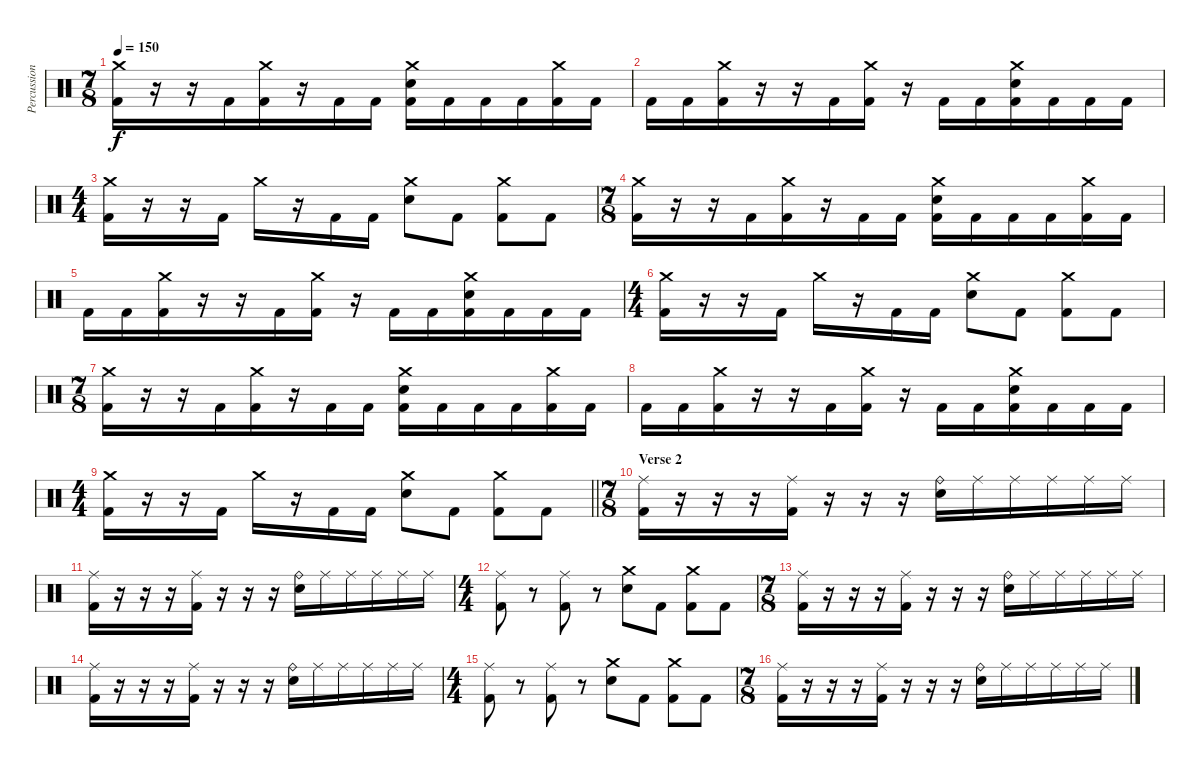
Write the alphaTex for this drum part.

\track ("Percussion" "Percussion") {instrument percussion}
\staff {score}
\articulation defaults
\ts (7 8)
\tempo 150
\clef neutral
\ks c
("Crash medium (hit)" "Kick (hit) 2").16{dy f} r.16 r.16 "Kick (hit) 2".16 ("Crash medium (hit)" "Kick (hit) 2").16 r.16 "Kick (hit) 2".16 "Kick (hit) 2".16 ("Crash medium (hit)" "Electric Snare (hit)" "Kick (hit) 2").16 "Kick (hit) 2".16 "Kick (hit) 2".16 "Kick (hit) 2".16 ("Crash medium (hit)" "Kick (hit) 2").16 "Kick (hit) 2".16 |
"Kick (hit) 2".16 "Kick (hit) 2".16 ("Crash medium (hit)" "Kick (hit) 2").16 r.16 r.16 "Kick (hit) 2".16 ("Crash medium (hit)" "Kick (hit) 2").16 r.16 "Kick (hit) 2".16 "Kick (hit) 2".16 ("Crash medium (hit)" "Electric Snare (hit)" "Kick (hit) 2").16 "Kick (hit) 2".16 "Kick (hit) 2".16 "Kick (hit) 2".16 |
\ts (4 4)
("Crash medium (hit)" "Kick (hit) 2").16 r.16 r.16 "Kick (hit) 2".16 "Crash medium (hit)".16 r.16 "Kick (hit) 2".16 "Kick (hit) 2".16 ("Crash medium (hit)" "Electric Snare (hit)").8 "Kick (hit) 2".8 ("Crash medium (hit)" "Kick (hit) 2").8 "Kick (hit) 2".8 |
\ts (7 8)
("Crash medium (hit)" "Kick (hit) 2").16 r.16 r.16 "Kick (hit) 2".16 ("Crash medium (hit)" "Kick (hit) 2").16 r.16 "Kick (hit) 2".16 "Kick (hit) 2".16 ("Crash medium (hit)" "Electric Snare (hit)" "Kick (hit) 2").16 "Kick (hit) 2".16 "Kick (hit) 2".16 "Kick (hit) 2".16 ("Crash medium (hit)" "Kick (hit) 2").16 "Kick (hit) 2".16 |
"Kick (hit) 2".16 "Kick (hit) 2".16 ("Crash medium (hit)" "Kick (hit) 2").16 r.16 r.16 "Kick (hit) 2".16 ("Crash medium (hit)" "Kick (hit) 2").16 r.16 "Kick (hit) 2".16 "Kick (hit) 2".16 ("Crash medium (hit)" "Electric Snare (hit)" "Kick (hit) 2").16 "Kick (hit) 2".16 "Kick (hit) 2".16 "Kick (hit) 2".16 |
\ts (4 4)
("Crash medium (hit)" "Kick (hit) 2").16 r.16 r.16 "Kick (hit) 2".16 "Crash medium (hit)".16 r.16 "Kick (hit) 2".16 "Kick (hit) 2".16 ("Crash medium (hit)" "Electric Snare (hit)").8 "Kick (hit) 2".8 ("Crash medium (hit)" "Kick (hit) 2").8 "Kick (hit) 2".8 |
\ts (7 8)
("Crash medium (hit)" "Kick (hit) 2").16 r.16 r.16 "Kick (hit) 2".16 ("Crash medium (hit)" "Kick (hit) 2").16 r.16 "Kick (hit) 2".16 "Kick (hit) 2".16 ("Crash medium (hit)" "Electric Snare (hit)" "Kick (hit) 2").16 "Kick (hit) 2".16 "Kick (hit) 2".16 "Kick (hit) 2".16 ("Crash medium (hit)" "Kick (hit) 2").16 "Kick (hit) 2".16 |
"Kick (hit) 2".16 "Kick (hit) 2".16 ("Crash medium (hit)" "Kick (hit) 2").16 r.16 r.16 "Kick (hit) 2".16 ("Crash medium (hit)" "Kick (hit) 2").16 r.16 "Kick (hit) 2".16 "Kick (hit) 2".16 ("Crash medium (hit)" "Electric Snare (hit)" "Kick (hit) 2").16 "Kick (hit) 2".16 "Kick (hit) 2".16 "Kick (hit) 2".16 |
\ts (4 4)
\barLineRight lightlight
("Crash medium (hit)" "Kick (hit) 2").16 r.16 r.16 "Kick (hit) 2".16 "Crash medium (hit)".16 r.16 "Kick (hit) 2".16 "Kick (hit) 2".16 ("Crash medium (hit)" "Electric Snare (hit)").8 "Kick (hit) 2".8 ("Crash medium (hit)" "Kick (hit) 2").8 "Kick (hit) 2".8 |
\ts (7 8)
\section ("" "Verse 2")
("Ride (middle)" "Kick (hit) 2").16 r.16 r.16 r.16 ("Ride (middle)" "Kick (hit) 2").16 r.16 r.16 r.16 ("Ride (bell)" "Electric Snare (hit)").16 "Ride (middle)".16 "Ride (middle)".16 "Ride (middle)".16 "Ride (middle)".16 "Ride (middle)".16 |
("Ride (middle)" "Kick (hit) 2").16 r.16 r.16 r.16 ("Ride (middle)" "Kick (hit) 2").16 r.16 r.16 r.16 ("Ride (bell)" "Electric Snare (hit)").16 "Ride (middle)".16 "Ride (middle)".16 "Ride (middle)".16 "Ride (middle)".16 "Ride (middle)".16 |
\ts (4 4)
("Ride (middle)" "Kick (hit) 2").8 r.8 ("Ride (middle)" "Kick (hit) 2").8 r.8 ("Crash medium (hit)" "Electric Snare (hit)").8 "Kick (hit) 2".8 ("Crash medium (hit)" "Kick (hit) 2").8 "Kick (hit) 2".8 |
\ts (7 8)
("Ride (middle)" "Kick (hit) 2").16 r.16 r.16 r.16 ("Ride (middle)" "Kick (hit) 2").16 r.16 r.16 r.16 ("Ride (bell)" "Electric Snare (hit)").16 "Ride (middle)".16 "Ride (middle)".16 "Ride (middle)".16 "Ride (middle)".16 "Ride (middle)".16 |
("Ride (middle)" "Kick (hit) 2").16 r.16 r.16 r.16 ("Ride (middle)" "Kick (hit) 2").16 r.16 r.16 r.16 ("Ride (bell)" "Electric Snare (hit)").16 "Ride (middle)".16 "Ride (middle)".16 "Ride (middle)".16 "Ride (middle)".16 "Ride (middle)".16 |
\ts (4 4)
("Ride (middle)" "Kick (hit) 2").8 r.8 ("Ride (middle)" "Kick (hit) 2").8 r.8 ("Crash medium (hit)" "Electric Snare (hit)").8 "Kick (hit) 2".8 ("Crash medium (hit)" "Kick (hit) 2").8 "Kick (hit) 2".8 |
\ts (7 8)
("Ride (middle)" "Kick (hit) 2").16 r.16 r.16 r.16 ("Ride (middle)" "Kick (hit) 2").16 r.16 r.16 r.16 ("Ride (bell)" "Electric Snare (hit)").16 "Ride (middle)".16 "Ride (middle)".16 "Ride (middle)".16 "Ride (middle)".16 "Ride (middle)".16
